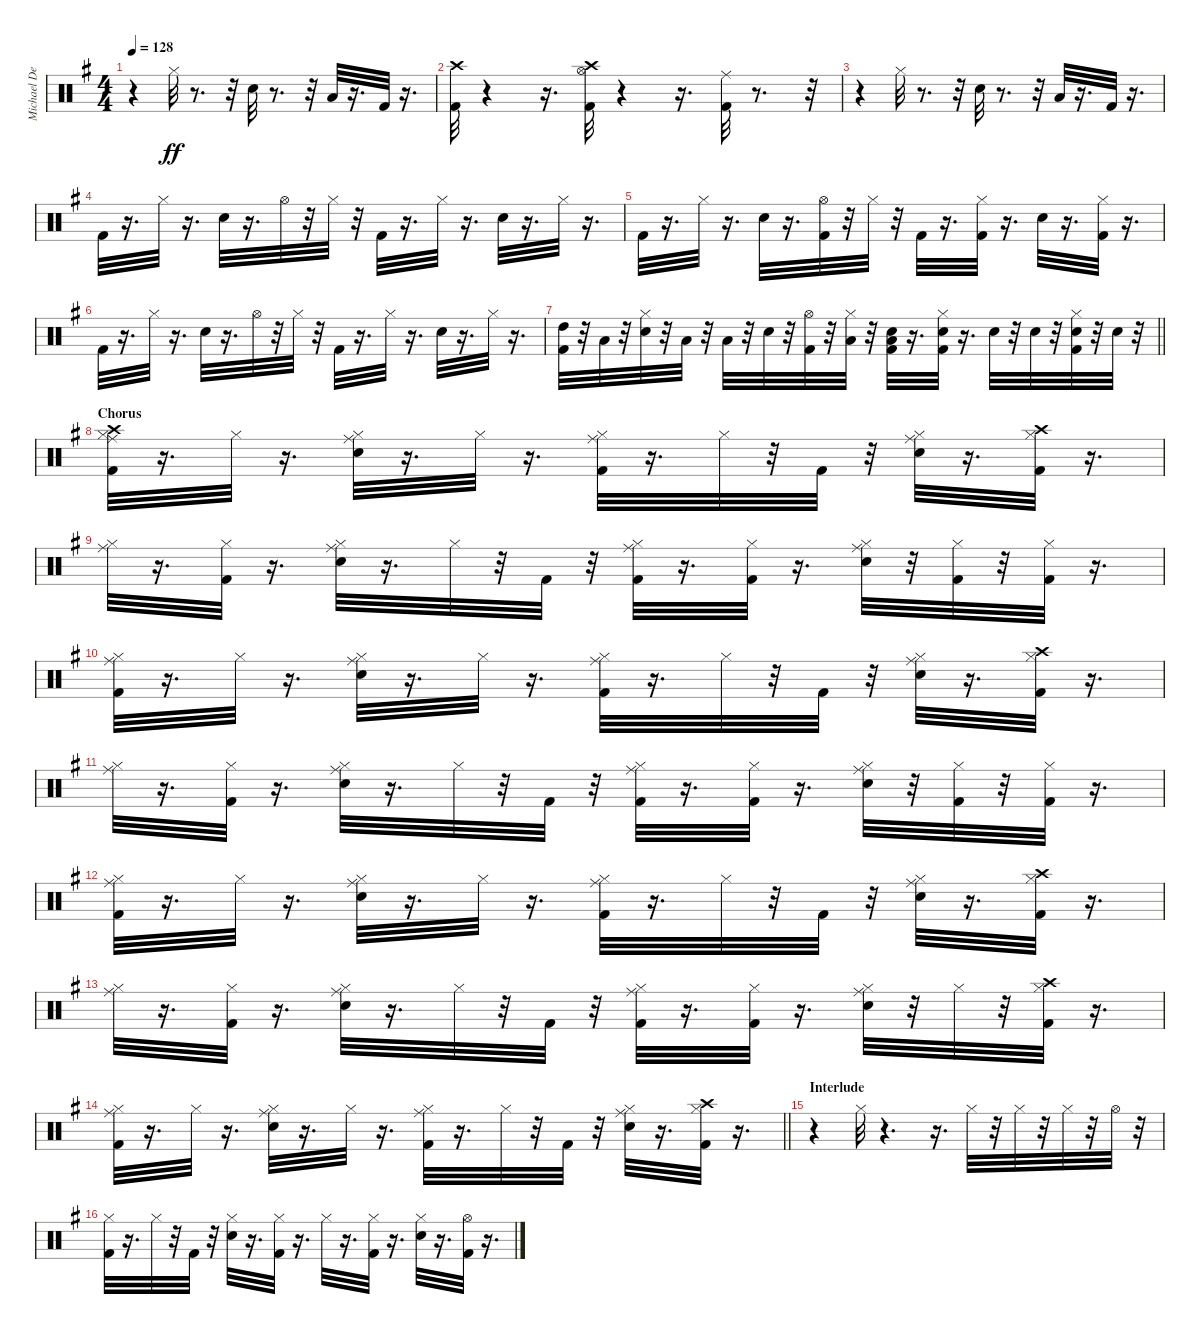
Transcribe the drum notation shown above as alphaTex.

\track ("Michael DeRosier" "Michael De") {instrument percussion}
\staff {score}
\articulation defaults
\ts (4 4)
\tempo 128
\clef neutral
\ks g
r.4{dy ff} "Hi-Hat (closed)".32 r.8{d} r.32 "Snare (hit) 2".32 r.8{d} r.32 "Low Floor Tom (hit)".32 r.16{d} "Kick (hit) 2".32 r.16{d} |
("Kick (hit) 2" "Crash high (hit)").32 r.4 r.16{d} ("Kick (hit) 2" "Crash high (hit)" "Hi-Hat (open)").32 r.4 r.16{d} ("Kick (hit) 2" "Ride (middle)").32 r.8{d} r.32 |
r.4 "Hi-Hat (closed)".32 r.8{d} r.32 "Snare (hit) 2".32 r.8{d} r.32 "Low Floor Tom (hit)".32 r.16{d} "Kick (hit) 2".32 r.16{d} |
"Kick (hit) 2".32 r.16{d} "Hi-Hat (closed)".32 r.16{d} "Snare (hit) 2".32 r.16{d} "Hi-Hat (open)".32 r.32 "Hi-Hat (closed)".32 r.32 "Kick (hit) 2".32 r.16{d} "Hi-Hat (closed)".32 r.16{d} "Snare (hit) 2".32 r.16{d} "Hi-Hat (closed)".32 r.16{d} |
"Kick (hit) 2".32 r.16{d} "Hi-Hat (closed)".32 r.16{d} "Snare (hit) 2".32 r.16{d} ("Kick (hit) 2" "Hi-Hat (open)").32 r.32 "Hi-Hat (closed)".32 r.32 "Kick (hit) 2".32 r.16{d} ("Kick (hit) 2" "Hi-Hat (closed)").32 r.16{d} "Snare (hit) 2".32 r.16{d} ("Kick (hit) 2" "Hi-Hat (closed)").32 r.16{d} |
"Kick (hit) 2".32 r.16{d} "Hi-Hat (closed)".32 r.16{d} "Snare (hit) 2".32 r.16{d} "Hi-Hat (open)".32 r.32 "Hi-Hat (closed)".32 r.32 "Kick (hit) 2".32 r.16{d} "Hi-Hat (closed)".32 r.16{d} "Snare (hit) 2".32 r.16{d} "Hi-Hat (closed)".32 r.16{d} |
\barLineRight lightlight
("Kick (hit) 2" "High Tom (hit)").32 r.32 "Low Tom (hit)".32 r.32 ("Snare (hit) 2" "Hi-Hat (closed)").32 r.32 "Low Tom (hit)".32 r.32 "Low Floor Tom (hit)".32 r.32 "Snare (hit) 2".32 r.32 ("Kick (hit) 2" "Hi-Hat (open)").32 r.32 ("Hi-Hat (closed)" "Low Floor Tom (hit)").32 r.32 ("Kick (hit) 2" "Snare (hit) 2" "Low Floor Tom (hit)").32 r.16{d} ("Kick (hit) 2" "Snare (hit) 2" "Hi-Hat (closed)").32 r.16{d} "Snare (hit) 2".32 r.32 "Snare (hit) 2".32 r.32 ("Kick (hit) 2" "Snare (hit) 2" "Hi-Hat (closed)").32 r.32 "Snare (hit) 2".32 r.32 |
\section ("" "Chorus")
("Kick (hit) 2" "Hi-Hat (closed)" "Crash high (hit)" "Ride (middle)").32 r.16{d} "Hi-Hat (closed)".32 r.16{d} ("Snare (hit) 2" "Hi-Hat (closed)" "Ride (middle)").32 r.16{d} "Hi-Hat (closed)".32 r.16{d} ("Kick (hit) 2" "Hi-Hat (closed)" "Ride (middle)").32 r.16{d} "Hi-Hat (closed)".32 r.32 "Kick (hit) 2".32 r.32 ("Snare (hit) 2" "Hi-Hat (closed)" "Ride (middle)").32 r.16{d} ("Kick (hit) 2" "Hi-Hat (closed)" "Crash high (hit)").32 r.16{d} |
("Hi-Hat (closed)" "Ride (middle)").32 r.16{d} ("Kick (hit) 2" "Hi-Hat (closed)").32 r.16{d} ("Snare (hit) 2" "Hi-Hat (closed)" "Ride (middle)").32 r.16{d} "Hi-Hat (closed)".32 r.32 "Kick (hit) 2".32 r.32 ("Kick (hit) 2" "Hi-Hat (closed)" "Ride (middle)").32 r.16{d} ("Kick (hit) 2" "Hi-Hat (closed)").32 r.16{d} ("Snare (hit) 2" "Hi-Hat (closed)" "Ride (middle)").32 r.32 ("Kick (hit) 2" "Hi-Hat (closed)").32 r.32 ("Kick (hit) 2" "Hi-Hat (closed)").32 r.16{d} |
("Kick (hit) 2" "Hi-Hat (closed)" "Ride (middle)").32 r.16{d} "Hi-Hat (closed)".32 r.16{d} ("Snare (hit) 2" "Hi-Hat (closed)" "Ride (middle)").32 r.16{d} "Hi-Hat (closed)".32 r.16{d} ("Kick (hit) 2" "Hi-Hat (closed)" "Ride (middle)").32 r.16{d} "Hi-Hat (closed)".32 r.32 "Kick (hit) 2".32 r.32 ("Snare (hit) 2" "Hi-Hat (closed)" "Ride (middle)").32 r.16{d} ("Kick (hit) 2" "Hi-Hat (closed)" "Crash high (hit)").32 r.16{d} |
("Hi-Hat (closed)" "Ride (middle)").32 r.16{d} ("Kick (hit) 2" "Hi-Hat (closed)").32 r.16{d} ("Snare (hit) 2" "Hi-Hat (closed)" "Ride (middle)").32 r.16{d} "Hi-Hat (closed)".32 r.32 "Kick (hit) 2".32 r.32 ("Kick (hit) 2" "Hi-Hat (closed)" "Ride (middle)").32 r.16{d} ("Kick (hit) 2" "Hi-Hat (closed)").32 r.16{d} ("Snare (hit) 2" "Hi-Hat (closed)" "Ride (middle)").32 r.32 ("Kick (hit) 2" "Hi-Hat (closed)").32 r.32 ("Kick (hit) 2" "Hi-Hat (closed)").32 r.16{d} |
("Kick (hit) 2" "Hi-Hat (closed)" "Ride (middle)").32 r.16{d} "Hi-Hat (closed)".32 r.16{d} ("Snare (hit) 2" "Hi-Hat (closed)" "Ride (middle)").32 r.16{d} "Hi-Hat (closed)".32 r.16{d} ("Kick (hit) 2" "Hi-Hat (closed)" "Ride (middle)").32 r.16{d} "Hi-Hat (closed)".32 r.32 "Kick (hit) 2".32 r.32 ("Snare (hit) 2" "Hi-Hat (closed)" "Ride (middle)").32 r.16{d} ("Kick (hit) 2" "Hi-Hat (closed)" "Crash high (hit)").32 r.16{d} |
("Hi-Hat (closed)" "Ride (middle)").32 r.16{d} ("Kick (hit) 2" "Hi-Hat (closed)").32 r.16{d} ("Snare (hit) 2" "Hi-Hat (closed)" "Ride (middle)").32 r.16{d} "Hi-Hat (closed)".32 r.32 "Kick (hit) 2".32 r.32 ("Kick (hit) 2" "Hi-Hat (closed)" "Ride (middle)").32 r.16{d} ("Kick (hit) 2" "Hi-Hat (closed)").32 r.16{d} ("Snare (hit) 2" "Hi-Hat (closed)" "Ride (middle)").32 r.32 "Hi-Hat (closed)".32 r.32 ("Kick (hit) 2" "Hi-Hat (closed)" "Crash high (hit)").32 r.16{d} |
\barLineRight lightlight
("Kick (hit) 2" "Hi-Hat (closed)" "Ride (middle)").32 r.16{d} "Hi-Hat (closed)".32 r.16{d} ("Snare (hit) 2" "Hi-Hat (closed)" "Ride (middle)").32 r.16{d} "Hi-Hat (closed)".32 r.16{d} ("Kick (hit) 2" "Hi-Hat (closed)" "Ride (middle)").32 r.16{d} "Hi-Hat (closed)".32 r.32 "Kick (hit) 2".32 r.32 ("Snare (hit) 2" "Hi-Hat (closed)" "Ride (middle)").32 r.16{d} ("Kick (hit) 2" "Hi-Hat (closed)" "Crash high (hit)").32 r.16{d} |
\section ("" "Interlude")
r.4 "Hi-Hat (closed)".32 r.4{d} r.16{d} "Hi-Hat (closed)".32 r.32 "Hi-Hat (closed)".32 r.32 "Hi-Hat (closed)".32 r.32 "Hi-Hat (open)".32 r.32 |
("Kick (hit) 2" "Hi-Hat (closed)").32 r.16{d} "Hi-Hat (closed)".32 r.32 "Kick (hit) 2".32 r.32 ("Snare (hit) 2" "Hi-Hat (closed)").32 r.16{d} ("Kick (hit) 2" "Hi-Hat (closed)").32 r.16{d} "Hi-Hat (closed)".32 r.16{d} ("Kick (hit) 2" "Hi-Hat (closed)").32 r.16{d} ("Snare (hit) 2" "Hi-Hat (closed)").32 r.16{d} ("Kick (hit) 2" "Hi-Hat (open)").32 r.16{d}
